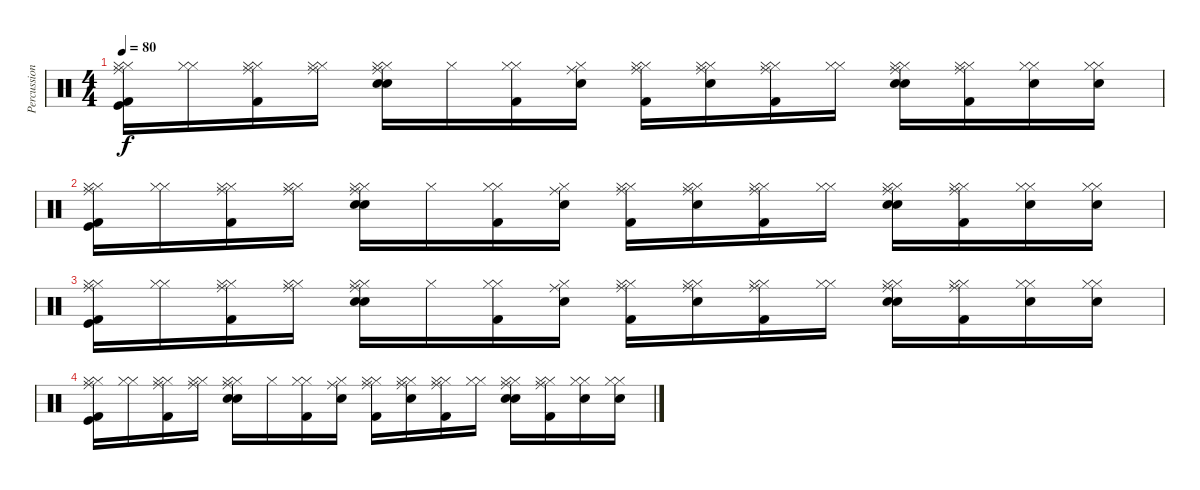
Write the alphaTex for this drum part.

\track ("Percussions" "Percussion") {instrument percussion}
\staff {score}
\articulation defaults
\ts (4 4)
\tempo 80
\clef neutral
\ks c
("Hi-Hat (closed)" "Hi-Hat (closed)" "Ride (middle)" "Kick (hit) 2" "Kick (hit)").16{dy f} ("Hi-Hat (closed)" "Hi-Hat (closed)").16 ("Hi-Hat (closed)" "Ride (middle)" "Hi-Hat (closed)" "Kick (hit) 2").16 ("Hi-Hat (closed)" "Hi-Hat (closed)" "Ride (middle)").16 ("Snare (hit) 2" "Electric Snare (hit)" "Hi-Hat (closed)" "Hi-Hat (closed)" "Ride (middle)").16 "Hi-Hat (closed)".16 ("Hi-Hat (closed)" "Hi-Hat (closed)" "Kick (hit) 2").16 ("Electric Snare (hit)" "Hi-Hat (closed)" "Ride (middle)").16 ("Hi-Hat (closed)" "Hi-Hat (closed)" "Ride (middle)" "Kick (hit) 2").16 ("Hi-Hat (closed)" "Hi-Hat (closed)" "Ride (middle)" "Electric Snare (hit)").16 ("Hi-Hat (closed)" "Ride (middle)" "Hi-Hat (closed)" "Kick (hit) 2").16 ("Hi-Hat (closed)" "Hi-Hat (closed)").16 ("Snare (hit) 2" "Electric Snare (hit)" "Hi-Hat (closed)" "Ride (middle)" "Hi-Hat (closed)").16 ("Hi-Hat (closed)" "Hi-Hat (closed)" "Ride (middle)" "Kick (hit) 2").16 ("Hi-Hat (closed)" "Hi-Hat (closed)" "Electric Snare (hit)").16 ("Hi-Hat (closed)" "Hi-Hat (closed)" "Electric Snare (hit)").16 |
("Hi-Hat (closed)" "Hi-Hat (closed)" "Ride (middle)" "Kick (hit) 2" "Kick (hit)").16 ("Hi-Hat (closed)" "Hi-Hat (closed)").16 ("Hi-Hat (closed)" "Ride (middle)" "Hi-Hat (closed)" "Kick (hit) 2").16 ("Hi-Hat (closed)" "Hi-Hat (closed)" "Ride (middle)").16 ("Snare (hit) 2" "Electric Snare (hit)" "Hi-Hat (closed)" "Hi-Hat (closed)" "Ride (middle)").16 "Hi-Hat (closed)".16 ("Hi-Hat (closed)" "Hi-Hat (closed)" "Kick (hit) 2").16 ("Electric Snare (hit)" "Hi-Hat (closed)" "Ride (middle)").16 ("Hi-Hat (closed)" "Hi-Hat (closed)" "Ride (middle)" "Kick (hit) 2").16 ("Hi-Hat (closed)" "Hi-Hat (closed)" "Ride (middle)" "Electric Snare (hit)").16 ("Hi-Hat (closed)" "Ride (middle)" "Hi-Hat (closed)" "Kick (hit) 2").16 ("Hi-Hat (closed)" "Hi-Hat (closed)").16 ("Snare (hit) 2" "Electric Snare (hit)" "Hi-Hat (closed)" "Ride (middle)" "Hi-Hat (closed)").16 ("Hi-Hat (closed)" "Hi-Hat (closed)" "Ride (middle)" "Kick (hit) 2").16 ("Hi-Hat (closed)" "Hi-Hat (closed)" "Electric Snare (hit)").16 ("Hi-Hat (closed)" "Hi-Hat (closed)" "Electric Snare (hit)").16 |
("Hi-Hat (closed)" "Hi-Hat (closed)" "Ride (middle)" "Kick (hit) 2" "Kick (hit)").16 ("Hi-Hat (closed)" "Hi-Hat (closed)").16 ("Hi-Hat (closed)" "Ride (middle)" "Hi-Hat (closed)" "Kick (hit) 2").16 ("Hi-Hat (closed)" "Hi-Hat (closed)" "Ride (middle)").16 ("Snare (hit) 2" "Electric Snare (hit)" "Hi-Hat (closed)" "Hi-Hat (closed)" "Ride (middle)").16 "Hi-Hat (closed)".16 ("Hi-Hat (closed)" "Hi-Hat (closed)" "Kick (hit) 2").16 ("Electric Snare (hit)" "Hi-Hat (closed)" "Ride (middle)").16 ("Hi-Hat (closed)" "Hi-Hat (closed)" "Ride (middle)" "Kick (hit) 2").16 ("Hi-Hat (closed)" "Hi-Hat (closed)" "Ride (middle)" "Electric Snare (hit)").16 ("Hi-Hat (closed)" "Ride (middle)" "Hi-Hat (closed)" "Kick (hit) 2").16 ("Hi-Hat (closed)" "Hi-Hat (closed)").16 ("Snare (hit) 2" "Electric Snare (hit)" "Hi-Hat (closed)" "Ride (middle)" "Hi-Hat (closed)").16 ("Hi-Hat (closed)" "Hi-Hat (closed)" "Ride (middle)" "Kick (hit) 2").16 ("Hi-Hat (closed)" "Hi-Hat (closed)" "Electric Snare (hit)").16 ("Hi-Hat (closed)" "Hi-Hat (closed)" "Electric Snare (hit)").16 |
("Hi-Hat (closed)" "Hi-Hat (closed)" "Ride (middle)" "Kick (hit) 2" "Kick (hit)").16 ("Hi-Hat (closed)" "Hi-Hat (closed)").16 ("Hi-Hat (closed)" "Ride (middle)" "Hi-Hat (closed)" "Kick (hit) 2").16 ("Hi-Hat (closed)" "Hi-Hat (closed)" "Ride (middle)").16 ("Snare (hit) 2" "Electric Snare (hit)" "Hi-Hat (closed)" "Hi-Hat (closed)" "Ride (middle)").16 "Hi-Hat (closed)".16 ("Hi-Hat (closed)" "Hi-Hat (closed)" "Kick (hit) 2").16 ("Electric Snare (hit)" "Hi-Hat (closed)" "Ride (middle)").16 ("Hi-Hat (closed)" "Hi-Hat (closed)" "Ride (middle)" "Kick (hit) 2").16 ("Hi-Hat (closed)" "Hi-Hat (closed)" "Ride (middle)" "Electric Snare (hit)").16 ("Hi-Hat (closed)" "Ride (middle)" "Hi-Hat (closed)" "Kick (hit) 2").16 ("Hi-Hat (closed)" "Hi-Hat (closed)").16 ("Snare (hit) 2" "Electric Snare (hit)" "Hi-Hat (closed)" "Ride (middle)" "Hi-Hat (closed)").16 ("Hi-Hat (closed)" "Hi-Hat (closed)" "Ride (middle)" "Kick (hit) 2").16 ("Hi-Hat (closed)" "Hi-Hat (closed)" "Electric Snare (hit)").16 ("Hi-Hat (closed)" "Hi-Hat (closed)" "Electric Snare (hit)").16
